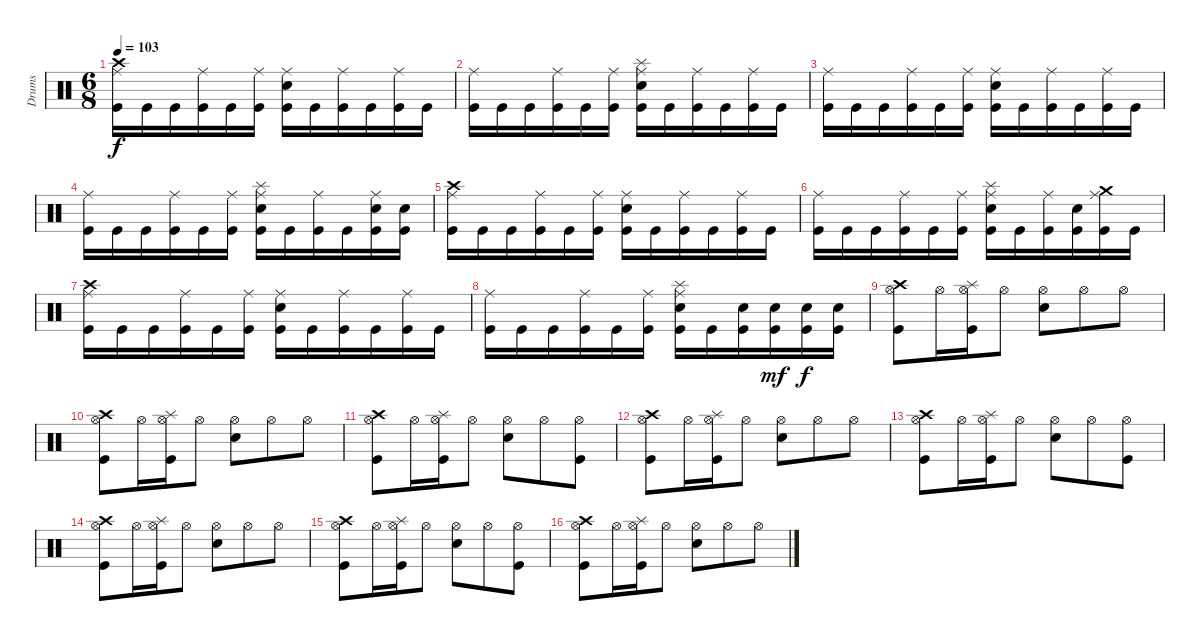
\track ("Drums" "Drums") {instrument percussion}
\staff {score}
\articulation defaults
\ts (6 8)
\tempo 103
\clef neutral
\ks c
("Crash high (hit)" "Ride (middle)" "Kick (hit)").16{dy f} "Kick (hit)".16 "Kick (hit)".16 ("Ride (middle)" "Kick (hit)").16 "Kick (hit)".16 ("Ride (middle)" "Kick (hit)").16 ("Ride (middle)" "Electric Snare (hit)" "Kick (hit)").16 "Kick (hit)".16 ("Ride (middle)" "Kick (hit)").16 "Kick (hit)".16 ("Ride (middle)" "Kick (hit)").16 "Kick (hit)".16 |
("Ride (middle)" "Kick (hit)").16 "Kick (hit)".16 "Kick (hit)".16 ("Ride (middle)" "Kick (hit)").16 "Kick (hit)".16 ("Ride (middle)" "Kick (hit)").16 ("Splash (hit)" "Ride (middle)" "Electric Snare (hit)" "Kick (hit)").16 "Kick (hit)".16 ("Ride (middle)" "Kick (hit)").16 "Kick (hit)".16 ("Ride (middle)" "Kick (hit)").16 "Kick (hit)".16 |
("Ride (middle)" "Kick (hit)").16 "Kick (hit)".16 "Kick (hit)".16 ("Ride (middle)" "Kick (hit)").16 "Kick (hit)".16 ("Ride (middle)" "Kick (hit)").16 ("Ride (middle)" "Electric Snare (hit)" "Kick (hit)").16 "Kick (hit)".16 ("Ride (middle)" "Kick (hit)").16 "Kick (hit)".16 ("Ride (middle)" "Kick (hit)").16 "Kick (hit)".16 |
("Ride (middle)" "Kick (hit)").16 "Kick (hit)".16 "Kick (hit)".16 ("Ride (middle)" "Kick (hit)").16 "Kick (hit)".16 ("Ride (middle)" "Kick (hit)").16 ("Splash (hit)" "Ride (middle)" "Electric Snare (hit)" "Kick (hit)").16 "Kick (hit)".16 ("Ride (middle)" "Kick (hit)").16 "Kick (hit)".16 ("Ride (middle)" "Electric Snare (hit)" "Kick (hit)").16 ("Electric Snare (hit)" "Kick (hit)").16 |
("Crash high (hit)" "Ride (middle)" "Kick (hit)").16 "Kick (hit)".16 "Kick (hit)".16 ("Ride (middle)" "Kick (hit)").16 "Kick (hit)".16 ("Ride (middle)" "Kick (hit)").16 ("Ride (middle)" "Electric Snare (hit)" "Kick (hit)").16 "Kick (hit)".16 ("Ride (middle)" "Kick (hit)").16 "Kick (hit)".16 ("Ride (middle)" "Kick (hit)").16 "Kick (hit)".16 |
("Ride (middle)" "Kick (hit)").16 "Kick (hit)".16 "Kick (hit)".16 ("Ride (middle)" "Kick (hit)").16 "Kick (hit)".16 ("Ride (middle)" "Kick (hit)").16 ("Splash (hit)" "Ride (middle)" "Electric Snare (hit)" "Kick (hit)").16 "Kick (hit)".16 ("Ride (middle)" "Kick (hit)").16 ("Electric Snare (hit)" "Kick (hit)").16 ("Crash medium (hit)" "Ride (middle)" "Kick (hit)").16 "Kick (hit)".16 |
("Crash high (hit)" "Ride (middle)" "Kick (hit)").16 "Kick (hit)".16 "Kick (hit)".16 ("Ride (middle)" "Kick (hit)").16 "Kick (hit)".16 ("Ride (middle)" "Kick (hit)").16 ("Ride (middle)" "Electric Snare (hit)" "Kick (hit)").16 "Kick (hit)".16 ("Ride (middle)" "Kick (hit)").16 "Kick (hit)".16 ("Ride (middle)" "Kick (hit)").16 "Kick (hit)".16 |
("Ride (middle)" "Kick (hit)").16 "Kick (hit)".16 "Kick (hit)".16 ("Ride (middle)" "Kick (hit)").16 "Kick (hit)".16 ("Ride (middle)" "Kick (hit)").16 ("Splash (hit)" "Ride (middle)" "Electric Snare (hit)" "Kick (hit)").16 "Kick (hit)".16 ("Electric Snare (hit)" "Kick (hit)").16 ("Electric Snare (hit)" "Kick (hit)").16{dy mf} ("Electric Snare (hit)" "Kick (hit)").16{dy f} ("Electric Snare (hit)" "Kick (hit)").16 |
("Crash high (hit)" "Hi-Hat (open)" "Kick (hit)").8 "Hi-Hat (open)".16 ("Splash (hit)" "Hi-Hat (open)" "Kick (hit)").16 "Hi-Hat (open)".8 ("Hi-Hat (open)" "Electric Snare (hit)").8 "Hi-Hat (open)".8 "Hi-Hat (open)".8 |
("Crash high (hit)" "Hi-Hat (open)" "Kick (hit)").8 "Hi-Hat (open)".16 ("Splash (hit)" "Hi-Hat (open)" "Kick (hit)").16 "Hi-Hat (open)".8 ("Hi-Hat (open)" "Electric Snare (hit)").8 "Hi-Hat (open)".8 "Hi-Hat (open)".8 |
("Crash high (hit)" "Hi-Hat (open)" "Kick (hit)").8 "Hi-Hat (open)".16 ("Splash (hit)" "Hi-Hat (open)" "Kick (hit)").16 "Hi-Hat (open)".8 ("Hi-Hat (open)" "Electric Snare (hit)").8 "Hi-Hat (open)".8 ("Hi-Hat (open)" "Kick (hit)").8 |
("Crash high (hit)" "Hi-Hat (open)" "Kick (hit)").8 "Hi-Hat (open)".16 ("Splash (hit)" "Hi-Hat (open)" "Kick (hit)").16 "Hi-Hat (open)".8 ("Hi-Hat (open)" "Electric Snare (hit)").8 "Hi-Hat (open)".8 "Hi-Hat (open)".8 |
("Crash high (hit)" "Hi-Hat (open)" "Kick (hit)").8 "Hi-Hat (open)".16 ("Splash (hit)" "Hi-Hat (open)" "Kick (hit)").16 "Hi-Hat (open)".8 ("Hi-Hat (open)" "Electric Snare (hit)").8 "Hi-Hat (open)".8 ("Hi-Hat (open)" "Kick (hit)").8 |
("Crash high (hit)" "Hi-Hat (open)" "Kick (hit)").8 "Hi-Hat (open)".16 ("Splash (hit)" "Hi-Hat (open)" "Kick (hit)").16 "Hi-Hat (open)".8 ("Hi-Hat (open)" "Electric Snare (hit)").8 "Hi-Hat (open)".8 "Hi-Hat (open)".8 |
("Crash high (hit)" "Hi-Hat (open)" "Kick (hit)").8 "Hi-Hat (open)".16 ("Splash (hit)" "Hi-Hat (open)" "Kick (hit)").16 "Hi-Hat (open)".8 ("Hi-Hat (open)" "Electric Snare (hit)").8 "Hi-Hat (open)".8 ("Hi-Hat (open)" "Kick (hit)").8 |
("Crash high (hit)" "Hi-Hat (open)" "Kick (hit)").8 "Hi-Hat (open)".16 ("Splash (hit)" "Hi-Hat (open)" "Kick (hit)").16 "Hi-Hat (open)".8 ("Hi-Hat (open)" "Electric Snare (hit)").8 "Hi-Hat (open)".8 "Hi-Hat (open)".8
